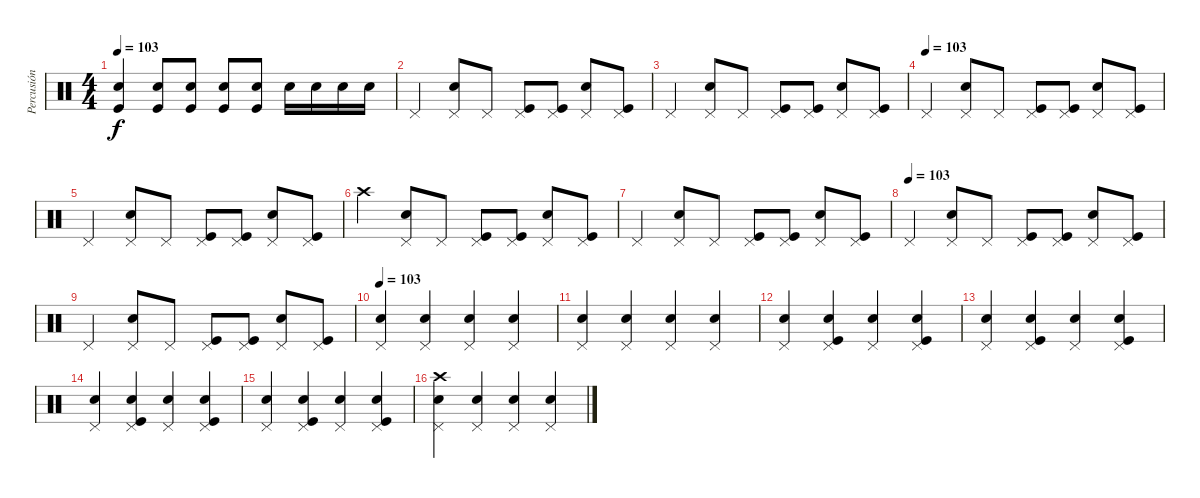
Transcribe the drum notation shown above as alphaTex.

\track ("Percusión" "Percusión") {instrument percussion}
\staff {score}
\articulation defaults
\ts (4 4)
\tempo 103
\clef neutral
\ks c
("Kick (hit)" "Snare (hit) 2").4{dy f} ("Kick (hit)" "Snare (hit) 2").8 ("Kick (hit)" "Snare (hit) 2").8 ("Kick (hit)" "Snare (hit) 2").8 ("Kick (hit)" "Snare (hit) 2").8 "Snare (hit) 2".16 "Snare (hit) 2".16 "Snare (hit) 2".16 "Snare (hit) 2".16 |
"Pedal Hi-Hat (hit)".4 ("Pedal Hi-Hat (hit)" "Snare (hit) 2").8 "Pedal Hi-Hat (hit)".8 ("Pedal Hi-Hat (hit)" "Kick (hit)").8 ("Pedal Hi-Hat (hit)" "Kick (hit)").8 ("Pedal Hi-Hat (hit)" "Snare (hit) 2").8 ("Pedal Hi-Hat (hit)" "Kick (hit)").8 |
"Pedal Hi-Hat (hit)".4 ("Pedal Hi-Hat (hit)" "Snare (hit) 2").8 "Pedal Hi-Hat (hit)".8 ("Pedal Hi-Hat (hit)" "Kick (hit)").8 ("Pedal Hi-Hat (hit)" "Kick (hit)").8 ("Pedal Hi-Hat (hit)" "Snare (hit) 2").8 ("Pedal Hi-Hat (hit)" "Kick (hit)").8 |
\tempo (103)
"Pedal Hi-Hat (hit)".4 ("Pedal Hi-Hat (hit)" "Snare (hit) 2").8 "Pedal Hi-Hat (hit)".8 ("Pedal Hi-Hat (hit)" "Kick (hit)").8 ("Pedal Hi-Hat (hit)" "Kick (hit)").8 ("Pedal Hi-Hat (hit)" "Snare (hit) 2").8 ("Pedal Hi-Hat (hit)" "Kick (hit)").8 |
"Pedal Hi-Hat (hit)".4 ("Pedal Hi-Hat (hit)" "Snare (hit) 2").8 "Pedal Hi-Hat (hit)".8 ("Pedal Hi-Hat (hit)" "Kick (hit)").8 ("Pedal Hi-Hat (hit)" "Kick (hit)").8 ("Pedal Hi-Hat (hit)" "Snare (hit) 2").8 ("Pedal Hi-Hat (hit)" "Kick (hit)").8 |
"Crash high (hit)".4 ("Pedal Hi-Hat (hit)" "Snare (hit) 2").8 "Pedal Hi-Hat (hit)".8 ("Pedal Hi-Hat (hit)" "Kick (hit)").8 ("Pedal Hi-Hat (hit)" "Kick (hit)").8 ("Pedal Hi-Hat (hit)" "Snare (hit) 2").8 ("Pedal Hi-Hat (hit)" "Kick (hit)").8 |
"Pedal Hi-Hat (hit)".4 ("Pedal Hi-Hat (hit)" "Snare (hit) 2").8 "Pedal Hi-Hat (hit)".8 ("Pedal Hi-Hat (hit)" "Kick (hit)").8 ("Pedal Hi-Hat (hit)" "Kick (hit)").8 ("Pedal Hi-Hat (hit)" "Snare (hit) 2").8 ("Pedal Hi-Hat (hit)" "Kick (hit)").8 |
\tempo (103)
"Pedal Hi-Hat (hit)".4 ("Pedal Hi-Hat (hit)" "Snare (hit) 2").8 "Pedal Hi-Hat (hit)".8 ("Pedal Hi-Hat (hit)" "Kick (hit)").8 ("Pedal Hi-Hat (hit)" "Kick (hit)").8 ("Pedal Hi-Hat (hit)" "Snare (hit) 2").8 ("Pedal Hi-Hat (hit)" "Kick (hit)").8 |
"Pedal Hi-Hat (hit)".4 ("Pedal Hi-Hat (hit)" "Snare (hit) 2").8 "Pedal Hi-Hat (hit)".8 ("Pedal Hi-Hat (hit)" "Kick (hit)").8 ("Pedal Hi-Hat (hit)" "Kick (hit)").8 ("Pedal Hi-Hat (hit)" "Snare (hit) 2").8 ("Pedal Hi-Hat (hit)" "Kick (hit)").8 |
\tempo 102
\tempo 103
("Snare (hit) 2" "Pedal Hi-Hat (hit)").4 ("Snare (hit) 2" "Pedal Hi-Hat (hit)").4 ("Snare (hit) 2" "Pedal Hi-Hat (hit)").4 ("Snare (hit) 2" "Pedal Hi-Hat (hit)").4 |
("Snare (hit) 2" "Pedal Hi-Hat (hit)").4 ("Snare (hit) 2" "Pedal Hi-Hat (hit)").4 ("Snare (hit) 2" "Pedal Hi-Hat (hit)").4 ("Snare (hit) 2" "Pedal Hi-Hat (hit)").4 |
("Snare (hit) 2" "Pedal Hi-Hat (hit)").4 ("Snare (hit) 2" "Pedal Hi-Hat (hit)" "Kick (hit)").4 ("Snare (hit) 2" "Pedal Hi-Hat (hit)").4 ("Snare (hit) 2" "Pedal Hi-Hat (hit)" "Kick (hit)").4 |
("Snare (hit) 2" "Pedal Hi-Hat (hit)").4 ("Snare (hit) 2" "Pedal Hi-Hat (hit)" "Kick (hit)").4 ("Snare (hit) 2" "Pedal Hi-Hat (hit)").4 ("Snare (hit) 2" "Pedal Hi-Hat (hit)" "Kick (hit)").4 |
("Snare (hit) 2" "Pedal Hi-Hat (hit)").4 ("Snare (hit) 2" "Pedal Hi-Hat (hit)" "Kick (hit)").4 ("Snare (hit) 2" "Pedal Hi-Hat (hit)").4 ("Snare (hit) 2" "Pedal Hi-Hat (hit)" "Kick (hit)").4 |
("Snare (hit) 2" "Pedal Hi-Hat (hit)").4 ("Snare (hit) 2" "Pedal Hi-Hat (hit)" "Kick (hit)").4 ("Snare (hit) 2" "Pedal Hi-Hat (hit)").4 ("Snare (hit) 2" "Pedal Hi-Hat (hit)" "Kick (hit)").4 |
("Snare (hit) 2" "Pedal Hi-Hat (hit)" "Crash high (hit)").4 ("Snare (hit) 2" "Pedal Hi-Hat (hit)").4 ("Snare (hit) 2" "Pedal Hi-Hat (hit)").4 ("Snare (hit) 2" "Pedal Hi-Hat (hit)").4
